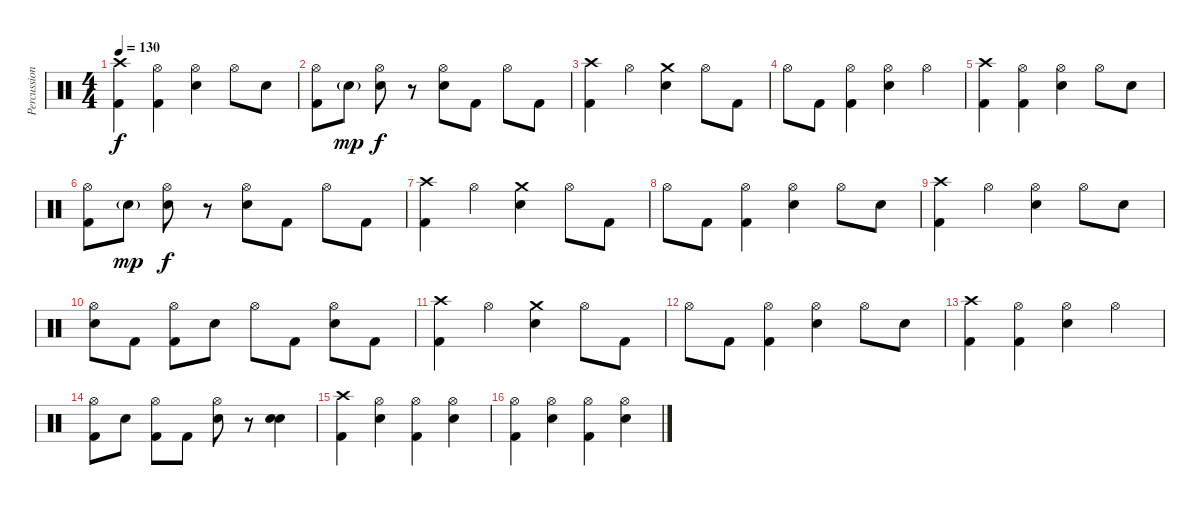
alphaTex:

\track ("Percussion" "Percussion") {instrument percussion}
\staff {score}
\articulation defaults
\ts (4 4)
\tempo 130
\clef neutral
\ks c
("Crash high (hit)" "Kick (hit) 2").4{dy f} ("Hi-Hat (open)" "Kick (hit) 2").4 ("Hi-Hat (open)" "Electric Snare (hit)").4 "Hi-Hat (open)".8 "Electric Snare (hit)".8 |
("Hi-Hat (open)" "Kick (hit) 2").8 "Electric Snare (hit)"{g}.8{dy mp} ("Hi-Hat (open)" "Electric Snare (hit)").8{dy f} r.8 ("Hi-Hat (open)" "Electric Snare (hit)").8 "Kick (hit) 2".8 "Hi-Hat (open)".8 "Kick (hit) 2".8 |
("Crash high (hit)" "Kick (hit) 2").4 "Hi-Hat (open)".4 ("Crash medium (hit)" "Electric Snare (hit)").4 "Hi-Hat (open)".8 "Kick (hit) 2".8 |
"Hi-Hat (open)".8 "Kick (hit) 2".8 ("Hi-Hat (open)" "Kick (hit) 2").4 ("Hi-Hat (open)" "Electric Snare (hit)").4 "Hi-Hat (open)".4 |
("Crash high (hit)" "Kick (hit) 2").4 ("Hi-Hat (open)" "Kick (hit) 2").4 ("Hi-Hat (open)" "Electric Snare (hit)").4 "Hi-Hat (open)".8 "Electric Snare (hit)".8 |
("Hi-Hat (open)" "Kick (hit) 2").8 "Electric Snare (hit)"{g}.8{dy mp} ("Hi-Hat (open)" "Electric Snare (hit)").8{dy f} r.8 ("Hi-Hat (open)" "Electric Snare (hit)").8 "Kick (hit) 2".8 "Hi-Hat (open)".8 "Kick (hit) 2".8 |
("Crash high (hit)" "Kick (hit) 2").4 "Hi-Hat (open)".4 ("Crash medium (hit)" "Electric Snare (hit)").4 "Hi-Hat (open)".8 "Kick (hit) 2".8 |
"Hi-Hat (open)".8 "Kick (hit) 2".8 ("Hi-Hat (open)" "Kick (hit) 2").4 ("Hi-Hat (open)" "Electric Snare (hit)").4 "Hi-Hat (open)".8 "Electric Snare (hit)".8 |
("Crash high (hit)" "Kick (hit) 2").4 "Hi-Hat (open)".4 ("Hi-Hat (open)" "Electric Snare (hit)").4 "Hi-Hat (open)".8 "Electric Snare (hit)".8 |
("Hi-Hat (open)" "Electric Snare (hit)").8 "Kick (hit) 2".8 ("Hi-Hat (open)" "Kick (hit) 2").8 "Electric Snare (hit)".8 "Hi-Hat (open)".8 "Kick (hit) 2".8 ("Hi-Hat (open)" "Electric Snare (hit)").8 "Kick (hit) 2".8 |
("Crash high (hit)" "Kick (hit) 2").4 "Hi-Hat (open)".4 ("Crash medium (hit)" "Electric Snare (hit)").4 "Hi-Hat (open)".8 "Kick (hit) 2".8 |
"Hi-Hat (open)".8 "Kick (hit) 2".8 ("Hi-Hat (open)" "Kick (hit) 2").4 ("Hi-Hat (open)" "Electric Snare (hit)").4 "Hi-Hat (open)".8 "Electric Snare (hit)".8 |
("Crash high (hit)" "Kick (hit) 2").4 ("Hi-Hat (open)" "Kick (hit) 2").4 ("Hi-Hat (open)" "Electric Snare (hit)").4 "Hi-Hat (open)".4 |
("Hi-Hat (open)" "Kick (hit) 2").8 "Electric Snare (hit)".8 ("Hi-Hat (open)" "Kick (hit) 2").8 "Kick (hit) 2".8 ("Hi-Hat (open)" "Electric Snare (hit)").8 r.8 ("Electric Snare (hit)" "Electric Snare (hit)").4 |
("Crash high (hit)" "Kick (hit) 2").4 ("Hi-Hat (open)" "Electric Snare (hit)").4 ("Hi-Hat (open)" "Kick (hit) 2").4 ("Hi-Hat (open)" "Electric Snare (hit)").4 |
("Hi-Hat (open)" "Kick (hit) 2").4 ("Hi-Hat (open)" "Electric Snare (hit)").4 ("Hi-Hat (open)" "Kick (hit) 2").4 ("Hi-Hat (open)" "Electric Snare (hit)").4
